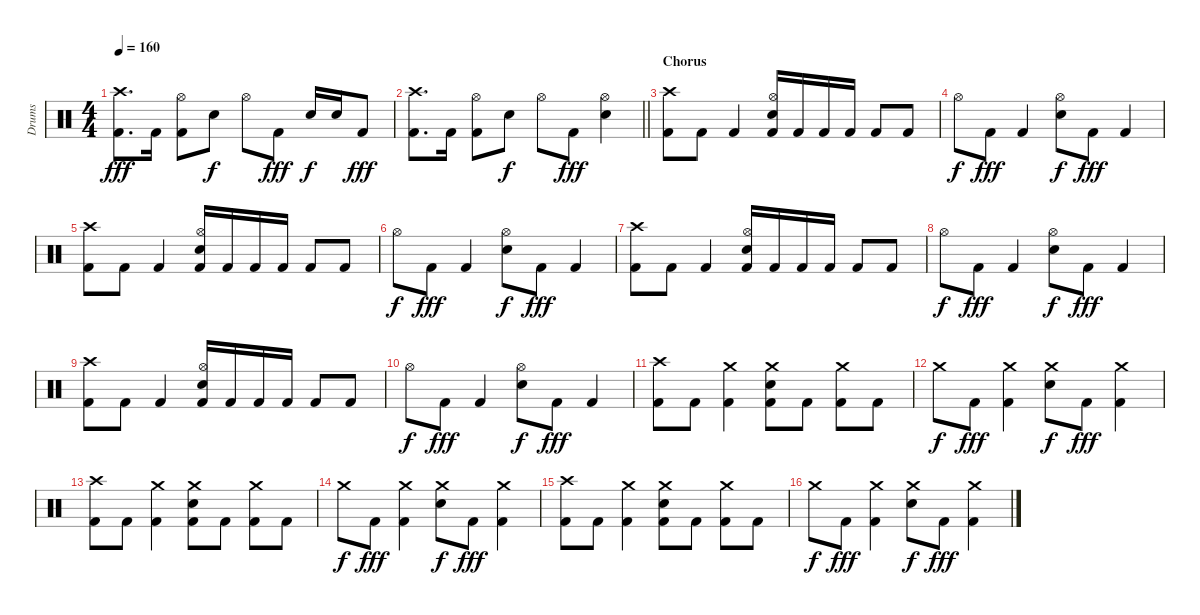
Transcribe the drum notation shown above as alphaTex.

\track ("Drums" "Drums") {instrument percussion}
\staff {score}
\articulation defaults
\ts (4 4)
\tempo 160
\clef neutral
\ks c
("Crash high (hit)" "Kick (hit) 2").8{d dy fff} "Kick (hit) 2".16 ("Hi-Hat (open)" "Kick (hit) 2").8 "Snare (hit) 2".8{dy f} "Hi-Hat (open)".8 "Kick (hit) 2".8{dy fff} "Snare (hit) 2".16{dy f} "Snare (hit) 2".16 "Kick (hit) 2".8{dy fff} |
\barLineRight lightlight
("Crash high (hit)" "Kick (hit) 2").8{d} "Kick (hit) 2".16 ("Hi-Hat (open)" "Kick (hit) 2").8 "Snare (hit) 2".8{dy f} "Hi-Hat (open)".8 "Kick (hit) 2".8{dy fff} ("Hi-Hat (open)" "Snare (hit) 2").4 |
\section ("" "Chorus")
("Crash high (hit)" "Kick (hit) 2").8 "Kick (hit) 2".8 "Kick (hit) 2".4 ("Hi-Hat (open)" "Snare (hit) 2" "Kick (hit) 2").16 "Kick (hit) 2".16 "Kick (hit) 2".16 "Kick (hit) 2".16 "Kick (hit) 2".8 "Kick (hit) 2".8 |
"Hi-Hat (open)".8{dy f} "Kick (hit) 2".8{dy fff} "Kick (hit) 2".4 ("Hi-Hat (open)" "Snare (hit) 2").8{dy f} "Kick (hit) 2".8{dy fff} "Kick (hit) 2".4 |
("Crash high (hit)" "Kick (hit) 2").8 "Kick (hit) 2".8 "Kick (hit) 2".4 ("Hi-Hat (open)" "Snare (hit) 2" "Kick (hit) 2").16 "Kick (hit) 2".16 "Kick (hit) 2".16 "Kick (hit) 2".16 "Kick (hit) 2".8 "Kick (hit) 2".8 |
"Hi-Hat (open)".8{dy f} "Kick (hit) 2".8{dy fff} "Kick (hit) 2".4 ("Hi-Hat (open)" "Snare (hit) 2").8{dy f} "Kick (hit) 2".8{dy fff} "Kick (hit) 2".4 |
("Crash high (hit)" "Kick (hit) 2").8 "Kick (hit) 2".8 "Kick (hit) 2".4 ("Hi-Hat (open)" "Snare (hit) 2" "Kick (hit) 2").16 "Kick (hit) 2".16 "Kick (hit) 2".16 "Kick (hit) 2".16 "Kick (hit) 2".8 "Kick (hit) 2".8 |
"Hi-Hat (open)".8{dy f} "Kick (hit) 2".8{dy fff} "Kick (hit) 2".4 ("Hi-Hat (open)" "Snare (hit) 2").8{dy f} "Kick (hit) 2".8{dy fff} "Kick (hit) 2".4 |
("Crash high (hit)" "Kick (hit) 2").8 "Kick (hit) 2".8 "Kick (hit) 2".4 ("Hi-Hat (open)" "Snare (hit) 2" "Kick (hit) 2").16 "Kick (hit) 2".16 "Kick (hit) 2".16 "Kick (hit) 2".16 "Kick (hit) 2".8 "Kick (hit) 2".8 |
"Hi-Hat (open)".8{dy f} "Kick (hit) 2".8{dy fff} "Kick (hit) 2".4 ("Hi-Hat (open)" "Snare (hit) 2").8{dy f} "Kick (hit) 2".8{dy fff} "Kick (hit) 2".4 |
("Crash high (hit)" "Kick (hit) 2").8 "Kick (hit) 2".8 ("Crash medium (hit)" "Kick (hit) 2").4 ("Crash medium (hit)" "Snare (hit) 2" "Kick (hit) 2").8 "Kick (hit) 2".8 ("Crash medium (hit)" "Kick (hit) 2").8 "Kick (hit) 2".8 |
"Crash medium (hit)".8{dy f} "Kick (hit) 2".8{dy fff} ("Crash medium (hit)" "Kick (hit) 2").4 ("Crash medium (hit)" "Snare (hit) 2").8{dy f} "Kick (hit) 2".8{dy fff} ("Crash medium (hit)" "Kick (hit) 2").4 |
("Crash high (hit)" "Kick (hit) 2").8 "Kick (hit) 2".8 ("Crash medium (hit)" "Kick (hit) 2").4 ("Crash medium (hit)" "Snare (hit) 2" "Kick (hit) 2").8 "Kick (hit) 2".8 ("Crash medium (hit)" "Kick (hit) 2").8 "Kick (hit) 2".8 |
"Crash medium (hit)".8{dy f} "Kick (hit) 2".8{dy fff} ("Crash medium (hit)" "Kick (hit) 2").4 ("Crash medium (hit)" "Snare (hit) 2").8{dy f} "Kick (hit) 2".8{dy fff} ("Crash medium (hit)" "Kick (hit) 2").4 |
("Crash high (hit)" "Kick (hit) 2").8 "Kick (hit) 2".8 ("Crash medium (hit)" "Kick (hit) 2").4 ("Crash medium (hit)" "Snare (hit) 2" "Kick (hit) 2").8 "Kick (hit) 2".8 ("Crash medium (hit)" "Kick (hit) 2").8 "Kick (hit) 2".8 |
"Crash medium (hit)".8{dy f} "Kick (hit) 2".8{dy fff} ("Crash medium (hit)" "Kick (hit) 2").4 ("Crash medium (hit)" "Snare (hit) 2").8{dy f} "Kick (hit) 2".8{dy fff} ("Crash medium (hit)" "Kick (hit) 2").4
